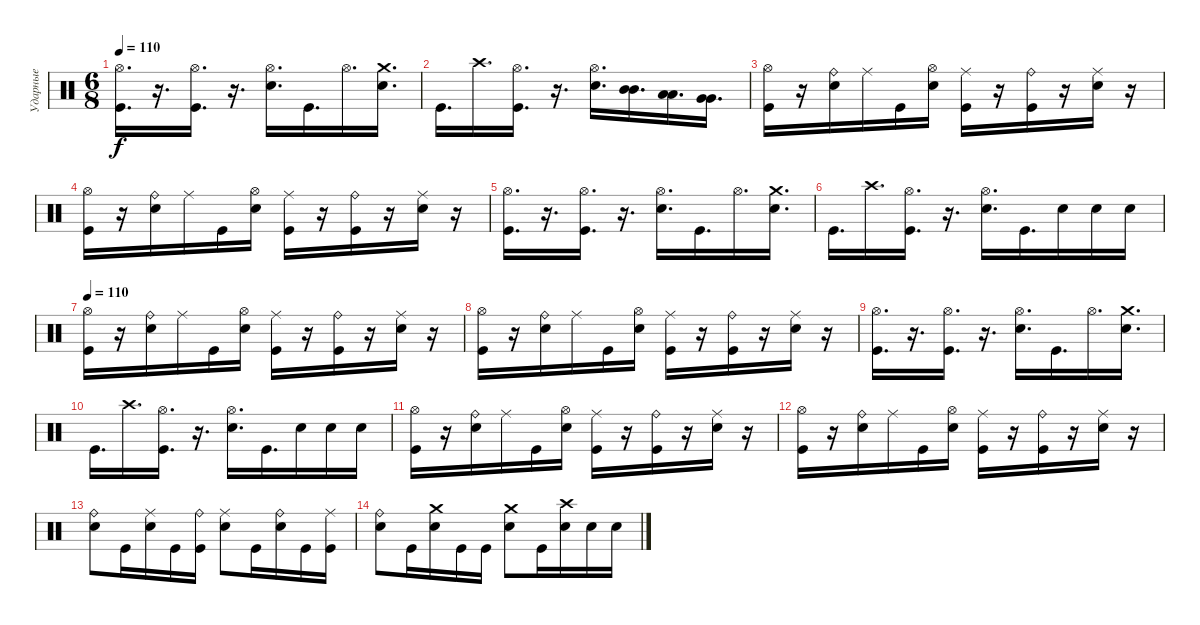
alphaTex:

\track ("Ударные" "Ударные") {instrument percussion}
\staff {score}
\articulation defaults
\ts (6 8)
\tempo 110
\clef neutral
\ks c
("Hi-Hat (open)" "Kick (hit)").16{d dy f} r.16{d} ("Hi-Hat (open)" "Kick (hit)").16{d} r.16{d} ("Hi-Hat (open)" "Snare (hit) 2").16{d} "Kick (hit)".16{d} "Hi-Hat (open)".16{d} ("Crash medium (hit)" "Snare (hit) 2").16{d} |
"Kick (hit)".16{d} "Crash high (hit)".16{d} ("Hi-Hat (open)" "Kick (hit)").16{d} r.16{d} ("Hi-Hat (open)" "Snare (hit) 2").16{d} ("Mid Tom (hit)" "Mid Tom (hit)").16{d bd 120} ("Low Tom (hit)" "Low Tom (hit)").16{d bu 120} ("Very Low Tom (hit)" "Very Low Tom (hit)").16{d bd 120} |
("Hi-Hat (open)" "Kick (hit)").16 r.16 ("Ride (bell)" "Snare (hit) 2").16 "Ride (middle)".16 "Kick (hit)".16 ("Hi-Hat (open)" "Snare (hit) 2").16 ("Ride (middle)" "Kick (hit)").16 r.16 ("Ride (bell)" "Kick (hit)").16 r.16 ("Ride (middle)" "Snare (hit) 2").16 r.16 |
("Hi-Hat (open)" "Kick (hit)").16 r.16 ("Ride (bell)" "Snare (hit) 2").16 "Ride (middle)".16 "Kick (hit)".16 ("Hi-Hat (open)" "Snare (hit) 2").16 ("Ride (middle)" "Kick (hit)").16 r.16 ("Ride (bell)" "Kick (hit)").16 r.16 ("Ride (middle)" "Snare (hit) 2").16 r.16 |
("Hi-Hat (open)" "Kick (hit)").16{d} r.16{d} ("Hi-Hat (open)" "Kick (hit)").16{d} r.16{d} ("Hi-Hat (open)" "Snare (hit) 2").16{d} "Kick (hit)".16{d} "Hi-Hat (open)".16{d} ("Crash medium (hit)" "Snare (hit) 2").16{d} |
"Kick (hit)".16{d} "Crash high (hit)".16{d} ("Hi-Hat (open)" "Kick (hit)").16{d} r.16{d} ("Hi-Hat (open)" "Snare (hit) 2").16{d} "Kick (hit)".16{d} "Snare (hit) 2".16 "Snare (hit) 2".16 "Snare (hit) 2".16 |
\tempo 110
("Hi-Hat (open)" "Kick (hit)").16 r.16 ("Ride (bell)" "Snare (hit) 2").16 "Ride (middle)".16 "Kick (hit)".16 ("Hi-Hat (open)" "Snare (hit) 2").16 ("Ride (middle)" "Kick (hit)").16 r.16 ("Ride (bell)" "Kick (hit)").16 r.16 ("Ride (middle)" "Snare (hit) 2").16 r.16 |
("Hi-Hat (open)" "Kick (hit)").16 r.16 ("Ride (bell)" "Snare (hit) 2").16 "Ride (middle)".16 "Kick (hit)".16 ("Hi-Hat (open)" "Snare (hit) 2").16 ("Ride (middle)" "Kick (hit)").16 r.16 ("Ride (bell)" "Kick (hit)").16 r.16 ("Ride (middle)" "Snare (hit) 2").16 r.16 |
("Hi-Hat (open)" "Kick (hit)").16{d} r.16{d} ("Hi-Hat (open)" "Kick (hit)").16{d} r.16{d} ("Hi-Hat (open)" "Snare (hit) 2").16{d} "Kick (hit)".16{d} "Hi-Hat (open)".16{d} ("Crash medium (hit)" "Snare (hit) 2").16{d} |
"Kick (hit)".16{d} "Crash high (hit)".16{d} ("Hi-Hat (open)" "Kick (hit)").16{d} r.16{d} ("Hi-Hat (open)" "Snare (hit) 2").16{d} "Kick (hit)".16{d} "Snare (hit) 2".16 "Snare (hit) 2".16 "Snare (hit) 2".16 |
("Hi-Hat (open)" "Kick (hit)").16 r.16 ("Ride (bell)" "Snare (hit) 2").16 "Ride (middle)".16 "Kick (hit)".16 ("Hi-Hat (open)" "Snare (hit) 2").16 ("Ride (middle)" "Kick (hit)").16 r.16 ("Ride (bell)" "Kick (hit)").16 r.16 ("Ride (middle)" "Snare (hit) 2").16 r.16 |
("Hi-Hat (open)" "Kick (hit)").16 r.16 ("Ride (bell)" "Snare (hit) 2").16 "Ride (middle)".16 "Kick (hit)".16 ("Hi-Hat (open)" "Snare (hit) 2").16 ("Ride (middle)" "Kick (hit)").16 r.16 ("Ride (bell)" "Kick (hit)").16 r.16 ("Ride (middle)" "Snare (hit) 2").16 r.16 |
("Ride (bell)" "Snare (hit) 2").8 "Kick (hit)".16 ("Ride (middle)" "Snare (hit) 2").16 "Kick (hit)".16 ("Ride (bell)" "Kick (hit)").16 ("Ride (middle)" "Snare (hit) 2").8 "Kick (hit)".16 ("Ride (bell)" "Snare (hit) 2").16 "Kick (hit)".16 ("Ride (middle)" "Kick (hit)").16 |
("Ride (bell)" "Snare (hit) 2").8 "Kick (hit)".16 ("Crash medium (hit)" "Snare (hit) 2").16 "Kick (hit)".16 "Kick (hit)".16 ("Crash medium (hit)" "Snare (hit) 2").8 "Kick (hit)".16 ("Crash high (hit)" "Snare (hit) 2").16 "Snare (hit) 2".16 "Snare (hit) 2".16
